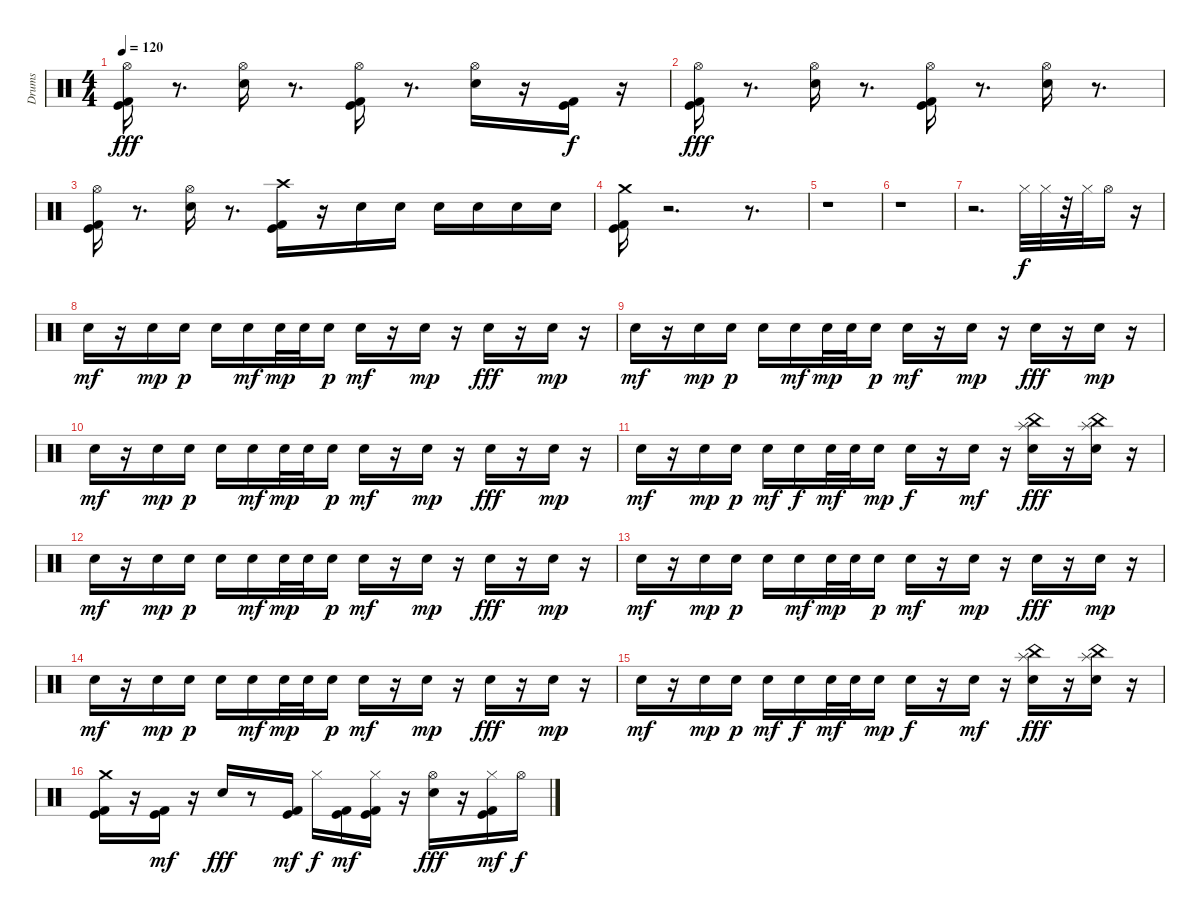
\track ("Drums" "Drums") {instrument percussion}
\staff {score}
\articulation defaults
\ts (4 4)
\tempo 120
\clef neutral
\ks c
("Kick (hit)" "Kick (hit) 2" "Hi-Hat (open)").16{dy fff} r.8{d} ("Electric Snare (hit)" "Hi-Hat (open)").16 r.8{d} ("Kick (hit)" "Kick (hit) 2" "Hi-Hat (open)").16 r.8{d} ("Electric Snare (hit)" "Hi-Hat (open)").16 r.16 ("Kick (hit)" "Kick (hit) 2").16{dy f} r.16 |
("Kick (hit)" "Kick (hit) 2" "Hi-Hat (open)").16{dy fff} r.8{d} ("Electric Snare (hit)" "Hi-Hat (open)").16 r.8{d} ("Kick (hit)" "Kick (hit) 2" "Hi-Hat (open)").16 r.8{d} ("Electric Snare (hit)" "Hi-Hat (open)").16 r.8{d} |
("Kick (hit)" "Kick (hit) 2" "Hi-Hat (open)").16 r.8{d} ("Electric Snare (hit)" "Hi-Hat (open)").16 r.8{d} ("Kick (hit)" "Kick (hit) 2" "Crash high (hit)").16 r.16 "Electric Snare (hit)".16 "Electric Snare (hit)".16 "Electric Snare (hit)".16 "Electric Snare (hit)".16 "Electric Snare (hit)".16 "Electric Snare (hit)".16 |
("Kick (hit)" "Kick (hit) 2" "Crash medium (hit)").16 r.2{d} r.8{d} |
r.1 |
r.1 |
r.2{d} "Hi-Hat (closed)".32{dy f} "Hi-Hat (closed)".32 r.32 "Hi-Hat (closed)".32 "Hi-Hat (open)".16 r.16 |
"Electric Snare (hit)".16{dy mf} r.16 "Electric Snare (hit)".16{dy mp} "Electric Snare (hit)".16{dy p} "Electric Snare (hit)".16 "Electric Snare (hit)".16{dy mf} "Electric Snare (hit)".32{dy mp} "Electric Snare (hit)".32 "Electric Snare (hit)".16{dy p} "Electric Snare (hit)".16{dy mf} r.16 "Electric Snare (hit)".16{dy mp} r.16 "Electric Snare (hit)".16{dy fff} r.16 "Electric Snare (hit)".16{dy mp} r.16 |
"Electric Snare (hit)".16{dy mf} r.16 "Electric Snare (hit)".16{dy mp} "Electric Snare (hit)".16{dy p} "Electric Snare (hit)".16 "Electric Snare (hit)".16{dy mf} "Electric Snare (hit)".32{dy mp} "Electric Snare (hit)".32 "Electric Snare (hit)".16{dy p} "Electric Snare (hit)".16{dy mf} r.16 "Electric Snare (hit)".16{dy mp} r.16 "Electric Snare (hit)".16{dy fff} r.16 "Electric Snare (hit)".16{dy mp} r.16 |
"Electric Snare (hit)".16{dy mf} r.16 "Electric Snare (hit)".16{dy mp} "Electric Snare (hit)".16{dy p} "Electric Snare (hit)".16 "Electric Snare (hit)".16{dy mf} "Electric Snare (hit)".32{dy mp} "Electric Snare (hit)".32 "Electric Snare (hit)".16{dy p} "Electric Snare (hit)".16{dy mf} r.16 "Electric Snare (hit)".16{dy mp} r.16 "Electric Snare (hit)".16{dy fff} r.16 "Electric Snare (hit)".16{dy mp} r.16 |
"Electric Snare (hit)".16{dy mf} r.16 "Electric Snare (hit)".16{dy mp} "Electric Snare (hit)".16{dy p} "Electric Snare (hit)".16{dy mf} "Electric Snare (hit)".16{dy f} "Electric Snare (hit)".32{dy mf} "Electric Snare (hit)".32 "Electric Snare (hit)".16{dy mp} "Electric Snare (hit)".16{dy f} r.16 "Electric Snare (hit)".16{dy mf} r.16 ("Electric Snare (hit)" "China (hit)" "Splash (hit)").16{dy fff} r.16 ("Electric Snare (hit)" "China (hit)" "Splash (hit)").16 r.16 |
"Electric Snare (hit)".16{dy mf} r.16 "Electric Snare (hit)".16{dy mp} "Electric Snare (hit)".16{dy p} "Electric Snare (hit)".16 "Electric Snare (hit)".16{dy mf} "Electric Snare (hit)".32{dy mp} "Electric Snare (hit)".32 "Electric Snare (hit)".16{dy p} "Electric Snare (hit)".16{dy mf} r.16 "Electric Snare (hit)".16{dy mp} r.16 "Electric Snare (hit)".16{dy fff} r.16 "Electric Snare (hit)".16{dy mp} r.16 |
"Electric Snare (hit)".16{dy mf} r.16 "Electric Snare (hit)".16{dy mp} "Electric Snare (hit)".16{dy p} "Electric Snare (hit)".16 "Electric Snare (hit)".16{dy mf} "Electric Snare (hit)".32{dy mp} "Electric Snare (hit)".32 "Electric Snare (hit)".16{dy p} "Electric Snare (hit)".16{dy mf} r.16 "Electric Snare (hit)".16{dy mp} r.16 "Electric Snare (hit)".16{dy fff} r.16 "Electric Snare (hit)".16{dy mp} r.16 |
"Electric Snare (hit)".16{dy mf} r.16 "Electric Snare (hit)".16{dy mp} "Electric Snare (hit)".16{dy p} "Electric Snare (hit)".16 "Electric Snare (hit)".16{dy mf} "Electric Snare (hit)".32{dy mp} "Electric Snare (hit)".32 "Electric Snare (hit)".16{dy p} "Electric Snare (hit)".16{dy mf} r.16 "Electric Snare (hit)".16{dy mp} r.16 "Electric Snare (hit)".16{dy fff} r.16 "Electric Snare (hit)".16{dy mp} r.16 |
"Electric Snare (hit)".16{dy mf} r.16 "Electric Snare (hit)".16{dy mp} "Electric Snare (hit)".16{dy p} "Electric Snare (hit)".16{dy mf} "Electric Snare (hit)".16{dy f} "Electric Snare (hit)".32{dy mf} "Electric Snare (hit)".32 "Electric Snare (hit)".16{dy mp} "Electric Snare (hit)".16{dy f} r.16 "Electric Snare (hit)".16{dy mf} r.16 ("Electric Snare (hit)" "China (hit)" "Splash (hit)").16{dy fff} r.16 ("Electric Snare (hit)" "China (hit)" "Splash (hit)").16 r.16 |
("Kick (hit)" "Kick (hit) 2" "Crash medium (hit)").16 r.16 ("Kick (hit)" "Kick (hit) 2").16{dy mf} r.16 "Electric Snare (hit)".16{dy fff} r.8 ("Kick (hit)" "Kick (hit) 2").16{dy mf} "Hi-Hat (closed)".16{dy f} ("Kick (hit)" "Kick (hit) 2").16{dy mf} ("Kick (hit)" "Kick (hit) 2" "Hi-Hat (closed)").16 r.16 ("Electric Snare (hit)" "Hi-Hat (open)").16{dy fff} r.16 ("Kick (hit)" "Kick (hit) 2" "Hi-Hat (closed)").16{dy mf} "Hi-Hat (open)".16{dy f}
